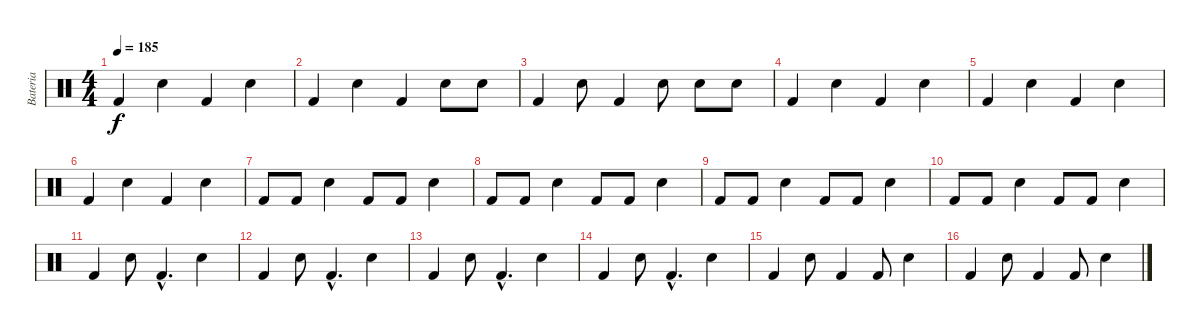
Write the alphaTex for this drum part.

\track ("Bateria" "Bateria") {instrument percussion}
\staff {score}
\articulation defaults
\ts (4 4)
\tempo 185
\clef neutral
\ks c "Kick (hit) 2".4{dy f} "Snare (hit) 2".4 "Kick (hit) 2".4 "Snare (hit) 2".4
|
"Kick (hit) 2".4 "Snare (hit) 2".4 "Kick (hit) 2".4 "Snare (hit) 2".8 "Snare (hit) 2".8 |
"Kick (hit) 2".4 "Snare (hit) 2".8 "Kick (hit) 2".4 "Snare (hit) 2".8 "Snare (hit) 2".8 "Snare (hit) 2".8 |
"Kick (hit) 2".4 "Snare (hit) 2".4 "Kick (hit) 2".4 "Snare (hit) 2".4 |
"Kick (hit) 2".4 "Snare (hit) 2".4 "Kick (hit) 2".4 "Snare (hit) 2".4 |
"Kick (hit) 2".4 "Snare (hit) 2".4 "Kick (hit) 2".4 "Snare (hit) 2".4 |
"Kick (hit) 2".8 "Kick (hit) 2".8 "Snare (hit) 2".4 "Kick (hit) 2".8 "Kick (hit) 2".8 "Snare (hit) 2".4 |
"Kick (hit) 2".8 "Kick (hit) 2".8 "Snare (hit) 2".4 "Kick (hit) 2".8 "Kick (hit) 2".8 "Snare (hit) 2".4 |
"Kick (hit) 2".8 "Kick (hit) 2".8 "Snare (hit) 2".4 "Kick (hit) 2".8 "Kick (hit) 2".8 "Snare (hit) 2".4 |
"Kick (hit) 2".8 "Kick (hit) 2".8 "Snare (hit) 2".4 "Kick (hit) 2".8 "Kick (hit) 2".8 "Snare (hit) 2".4 |
"Kick (hit) 2".4 "Snare (hit) 2".8 "Kick (hit) 2"{hac}.4{d} "Snare (hit) 2".4 |
"Kick (hit) 2".4 "Snare (hit) 2".8 "Kick (hit) 2"{hac}.4{d} "Snare (hit) 2".4 |
"Kick (hit) 2".4 "Snare (hit) 2".8 "Kick (hit) 2"{hac}.4{d} "Snare (hit) 2".4 |
"Kick (hit) 2".4 "Snare (hit) 2".8 "Kick (hit) 2"{hac}.4{d} "Snare (hit) 2".4 |
"Kick (hit) 2".4 "Snare (hit) 2".8 "Kick (hit) 2".4 "Kick (hit) 2".8 "Snare (hit) 2".4 |
"Kick (hit) 2".4 "Snare (hit) 2".8 "Kick (hit) 2".4 "Kick (hit) 2".8 "Snare (hit) 2".4
